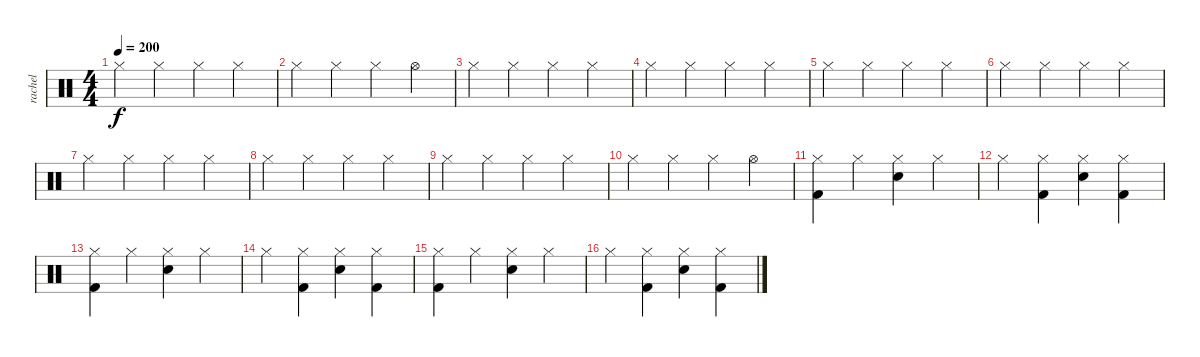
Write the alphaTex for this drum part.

\track ("rachel" "rachel") {instrument percussion}
\staff {score}
\articulation defaults
\ts (4 4)
\tempo 200
\clef neutral
\ks c "Hi-Hat (closed)".4{dy f} "Hi-Hat (closed)".4 "Hi-Hat (closed)".4 "Hi-Hat (closed)".4
|
"Hi-Hat (closed)".4 "Hi-Hat (closed)".4 "Hi-Hat (closed)".4 "Hi-Hat (open)".4 |
"Hi-Hat (closed)".4 "Hi-Hat (closed)".4 "Hi-Hat (closed)".4 "Hi-Hat (closed)".4 |
"Hi-Hat (closed)".4 "Hi-Hat (closed)".4 "Hi-Hat (closed)".4 "Hi-Hat (closed)".4 |
"Hi-Hat (closed)".4 "Hi-Hat (closed)".4 "Hi-Hat (closed)".4 "Hi-Hat (closed)".4 |
"Hi-Hat (closed)".4 "Hi-Hat (closed)".4 "Hi-Hat (closed)".4 "Hi-Hat (closed)".4 |
"Hi-Hat (closed)".4 "Hi-Hat (closed)".4 "Hi-Hat (closed)".4 "Hi-Hat (closed)".4 |
"Hi-Hat (closed)".4 "Hi-Hat (closed)".4 "Hi-Hat (closed)".4 "Hi-Hat (closed)".4 |
"Hi-Hat (closed)".4 "Hi-Hat (closed)".4 "Hi-Hat (closed)".4 "Hi-Hat (closed)".4 |
"Hi-Hat (closed)".4 "Hi-Hat (closed)".4 "Hi-Hat (closed)".4 "Hi-Hat (open)".4 |
("Hi-Hat (closed)" "Kick (hit) 2").4 "Hi-Hat (closed)".4 ("Hi-Hat (closed)" "Electric Snare (hit)").4 "Hi-Hat (closed)".4 |
"Hi-Hat (closed)".4 ("Hi-Hat (closed)" "Kick (hit) 2").4 ("Hi-Hat (closed)" "Electric Snare (hit)").4 ("Hi-Hat (closed)" "Kick (hit) 2").4 |
("Hi-Hat (closed)" "Kick (hit) 2").4 "Hi-Hat (closed)".4 ("Hi-Hat (closed)" "Electric Snare (hit)").4 "Hi-Hat (closed)".4 |
"Hi-Hat (closed)".4 ("Hi-Hat (closed)" "Kick (hit) 2").4 ("Hi-Hat (closed)" "Electric Snare (hit)").4 ("Hi-Hat (closed)" "Kick (hit) 2").4 |
("Hi-Hat (closed)" "Kick (hit) 2").4 "Hi-Hat (closed)".4 ("Hi-Hat (closed)" "Electric Snare (hit)").4 "Hi-Hat (closed)".4 |
"Hi-Hat (closed)".4 ("Hi-Hat (closed)" "Kick (hit) 2").4 ("Hi-Hat (closed)" "Electric Snare (hit)").4 ("Hi-Hat (closed)" "Kick (hit) 2").4
